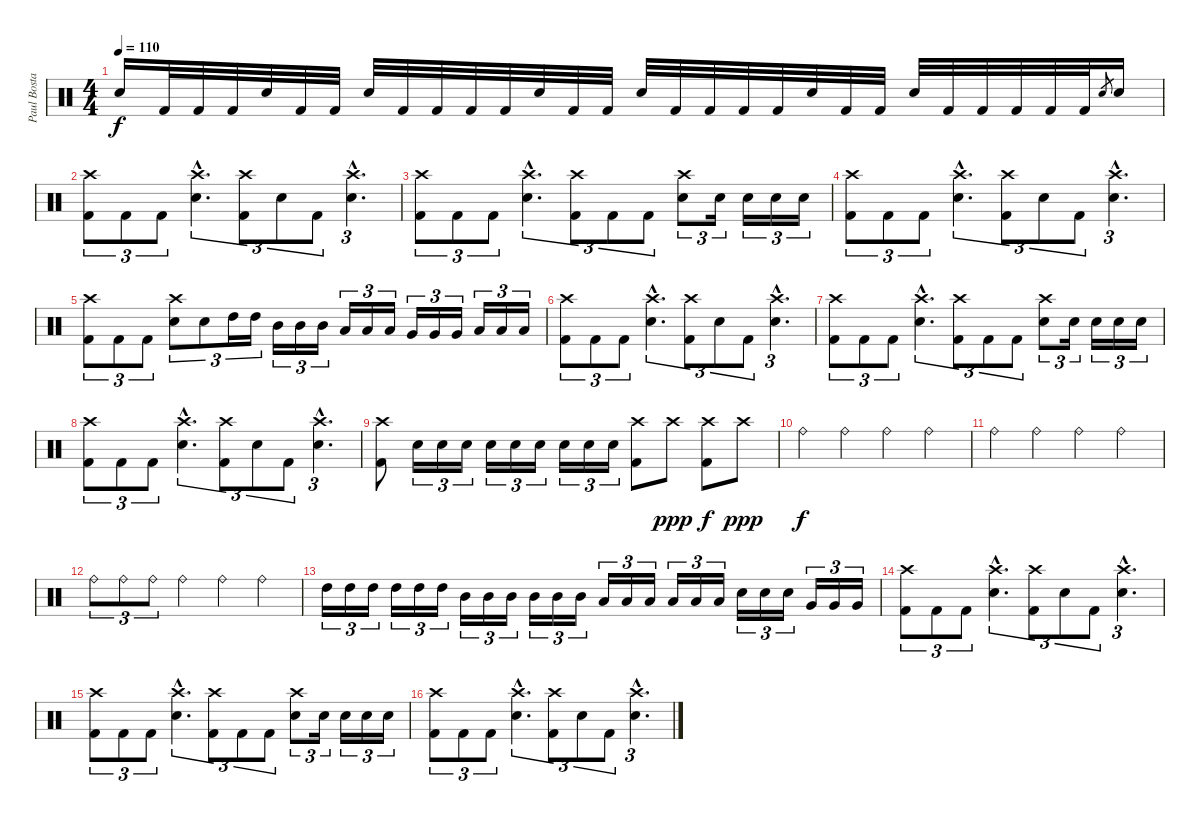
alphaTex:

\track ("Paul Bostaph" "Paul Bosta") {instrument percussion}
\staff {score}
\articulation defaults
\ts (4 4)
\tempo 110
\clef neutral
\ks c "Electric Snare (hit)".16{dy f} "Kick (hit) 2".32 "Kick (hit) 2".32 "Kick (hit) 2".32 "Electric Snare (hit)".32 "Kick (hit) 2".32 "Kick (hit) 2".32 "Electric Snare (hit)".32 "Kick (hit) 2".32 "Kick (hit) 2".32 "Kick (hit) 2".32 "Kick (hit) 2".32 "Electric Snare (hit)".32 "Kick (hit) 2".32 "Kick (hit) 2".32 "Electric Snare (hit)".32 "Kick (hit) 2".32 "Kick (hit) 2".32 "Kick (hit) 2".32 "Kick (hit) 2".32 "Electric Snare (hit)".32 "Kick (hit) 2".32 "Kick (hit) 2".32 "Electric Snare (hit)".32 "Kick (hit) 2".32 "Kick (hit) 2".32 "Kick (hit) 2".32 "Kick (hit) 2".32 "Kick (hit) 2".32 "Electric Snare (hit)".8{gr} "Electric Snare (hit)".16
|
("Crash high (hit)" "Kick (hit) 2").8{tu (3 2)} "Kick (hit) 2".8{tu (3 2)} "Kick (hit) 2".8{tu (3 2)} ("Crash high (hit)"{hac} "Electric Snare (hit)"{hac}).4{d tu (3 2)} ("Crash high (hit)" "Kick (hit) 2").8{tu (3 2)} "Electric Snare (hit)".8{tu (3 2)} "Kick (hit) 2".8{tu (3 2)} ("Crash high (hit)"{hac} "Electric Snare (hit)"{hac}).4{d tu (3 2)} |
("Crash high (hit)" "Kick (hit) 2").8{tu (3 2)} "Kick (hit) 2".8{tu (3 2)} "Kick (hit) 2".8{tu (3 2)} ("Crash high (hit)"{hac} "Electric Snare (hit)"{hac}).4{d tu (3 2)} ("Crash high (hit)" "Kick (hit) 2").8{tu (3 2)} "Kick (hit) 2".8{tu (3 2)} "Kick (hit) 2".8{tu (3 2)} ("Crash high (hit)" "Electric Snare (hit)").8{tu (3 2)} "Electric Snare (hit)".16{tu (3 2)} "Electric Snare (hit)".16{tu (3 2)} "Electric Snare (hit)".16{tu (3 2)} "Electric Snare (hit)".16{tu (3 2)} |
("Crash high (hit)" "Kick (hit) 2").8{tu (3 2)} "Kick (hit) 2".8{tu (3 2)} "Kick (hit) 2".8{tu (3 2)} ("Crash high (hit)"{hac} "Electric Snare (hit)"{hac}).4{d tu (3 2)} ("Crash high (hit)" "Kick (hit) 2").8{tu (3 2)} "Electric Snare (hit)".8{tu (3 2)} "Kick (hit) 2".8{tu (3 2)} ("Crash high (hit)"{hac} "Electric Snare (hit)"{hac}).4{d tu (3 2)} |
("Crash high (hit)" "Kick (hit) 2").8{tu (3 2)} "Kick (hit) 2".8{tu (3 2)} "Kick (hit) 2".8{tu (3 2)} ("Crash high (hit)" "Electric Snare (hit)").8{tu (3 2)} "Electric Snare (hit)".8{tu (3 2)} "High Tom (hit)".16{tu (3 2)} "High Tom (hit)".16{tu (3 2)} "Mid Tom (hit)".16{tu (3 2)} "Mid Tom (hit)".16{tu (3 2)} "Mid Tom (hit)".16{tu (3 2)} "Low Tom (hit)".16{tu (3 2)} "Low Tom (hit)".16{tu (3 2)} "Low Tom (hit)".16{tu (3 2)} "Very Low Tom (hit)".16{tu (3 2)} "Very Low Tom (hit)".16{tu (3 2)} "Very Low Tom (hit)".16{tu (3 2)} "Low Floor Tom (hit)".16{tu (3 2)} "Low Floor Tom (hit)".16{tu (3 2)} "Low Floor Tom (hit)".16{tu (3 2)} |
("Crash high (hit)" "Kick (hit) 2").8{tu (3 2)} "Kick (hit) 2".8{tu (3 2)} "Kick (hit) 2".8{tu (3 2)} ("Crash high (hit)"{hac} "Electric Snare (hit)"{hac}).4{d tu (3 2)} ("Crash high (hit)" "Kick (hit) 2").8{tu (3 2)} "Electric Snare (hit)".8{tu (3 2)} "Kick (hit) 2".8{tu (3 2)} ("Crash high (hit)"{hac} "Electric Snare (hit)"{hac}).4{d tu (3 2)} |
("Crash high (hit)" "Kick (hit) 2").8{tu (3 2)} "Kick (hit) 2".8{tu (3 2)} "Kick (hit) 2".8{tu (3 2)} ("Crash high (hit)"{hac} "Electric Snare (hit)"{hac}).4{d tu (3 2)} ("Crash high (hit)" "Kick (hit) 2").8{tu (3 2)} "Kick (hit) 2".8{tu (3 2)} "Kick (hit) 2".8{tu (3 2)} ("Crash high (hit)" "Electric Snare (hit)").8{tu (3 2)} "Electric Snare (hit)".16{tu (3 2)} "Electric Snare (hit)".16{tu (3 2)} "Electric Snare (hit)".16{tu (3 2)} "Electric Snare (hit)".16{tu (3 2)} |
("Crash high (hit)" "Kick (hit) 2").8{tu (3 2)} "Kick (hit) 2".8{tu (3 2)} "Kick (hit) 2".8{tu (3 2)} ("Crash high (hit)"{hac} "Electric Snare (hit)"{hac}).4{d tu (3 2)} ("Crash high (hit)" "Kick (hit) 2").8{tu (3 2)} "Electric Snare (hit)".8{tu (3 2)} "Kick (hit) 2".8{tu (3 2)} ("Crash high (hit)"{hac} "Electric Snare (hit)"{hac}).4{d tu (3 2)} |
("Crash high (hit)" "Kick (hit) 2").8 "Electric Snare (hit)".16{tu (3 2)} "Electric Snare (hit)".16{tu (3 2)} "Electric Snare (hit)".16{tu (3 2)} "Electric Snare (hit)".16{tu (3 2)} "Electric Snare (hit)".16{tu (3 2)} "Electric Snare (hit)".16{tu (3 2)} "Electric Snare (hit)".16{tu (3 2)} "Electric Snare (hit)".16{tu (3 2)} "Electric Snare (hit)".16{tu (3 2)} ("Crash high (hit)" "Kick (hit) 2").8 "Crash high (hit)".8{dy ppp} ("Crash high (hit)" "Kick (hit) 2").8{dy f} "Crash high (hit)".8{dy ppp} |
"Ride (bell)".4{dy f} "Ride (bell)".4 "Ride (bell)".4 "Ride (bell)".4 |
"Ride (bell)".4 "Ride (bell)".4 "Ride (bell)".4 "Ride (bell)".4 |
"Ride (bell)".8{tu (3 2)} "Ride (bell)".8{tu (3 2)} "Ride (bell)".8{tu (3 2)} "Ride (bell)".4 "Ride (bell)".4 "Ride (bell)".4 |
"High Tom (hit)".16{tu (3 2)} "High Tom (hit)".16{tu (3 2)} "High Tom (hit)".16{tu (3 2)} "High Tom (hit)".16{tu (3 2)} "High Tom (hit)".16{tu (3 2)} "High Tom (hit)".16{tu (3 2)} "Mid Tom (hit)".16{tu (3 2)} "Mid Tom (hit)".16{tu (3 2)} "Mid Tom (hit)".16{tu (3 2)} "Mid Tom (hit)".16{tu (3 2)} "Mid Tom (hit)".16{tu (3 2)} "Mid Tom (hit)".16{tu (3 2)} "Low Tom (hit)".16{tu (3 2)} "Low Tom (hit)".16{tu (3 2)} "Low Tom (hit)".16{tu (3 2)} "Low Tom (hit)".16{tu (3 2)} "Low Tom (hit)".16{tu (3 2)} "Low Tom (hit)".16{tu (3 2)} "Electric Snare (hit)".16{tu (3 2)} "Electric Snare (hit)".16{tu (3 2)} "Electric Snare (hit)".16{tu (3 2)} "Very Low Tom (hit)".16{tu (3 2)} "Very Low Tom (hit)".16{tu (3 2)} "Very Low Tom (hit)".16{tu (3 2)} |
("Crash high (hit)" "Kick (hit) 2").8{tu (3 2)} "Kick (hit) 2".8{tu (3 2)} "Kick (hit) 2".8{tu (3 2)} ("Crash high (hit)"{hac} "Electric Snare (hit)"{hac}).4{d tu (3 2)} ("Crash high (hit)" "Kick (hit) 2").8{tu (3 2)} "Electric Snare (hit)".8{tu (3 2)} "Kick (hit) 2".8{tu (3 2)} ("Crash high (hit)"{hac} "Electric Snare (hit)"{hac}).4{d tu (3 2)} |
("Crash high (hit)" "Kick (hit) 2").8{tu (3 2)} "Kick (hit) 2".8{tu (3 2)} "Kick (hit) 2".8{tu (3 2)} ("Crash high (hit)"{hac} "Electric Snare (hit)"{hac}).4{d tu (3 2)} ("Crash high (hit)" "Kick (hit) 2").8{tu (3 2)} "Kick (hit) 2".8{tu (3 2)} "Kick (hit) 2".8{tu (3 2)} ("Crash high (hit)" "Electric Snare (hit)").8{tu (3 2)} "Electric Snare (hit)".16{tu (3 2)} "Electric Snare (hit)".16{tu (3 2)} "Electric Snare (hit)".16{tu (3 2)} "Electric Snare (hit)".16{tu (3 2)} |
("Crash high (hit)" "Kick (hit) 2").8{tu (3 2)} "Kick (hit) 2".8{tu (3 2)} "Kick (hit) 2".8{tu (3 2)} ("Crash high (hit)"{hac} "Electric Snare (hit)"{hac}).4{d tu (3 2)} ("Crash high (hit)" "Kick (hit) 2").8{tu (3 2)} "Electric Snare (hit)".8{tu (3 2)} "Kick (hit) 2".8{tu (3 2)} ("Crash high (hit)"{hac} "Electric Snare (hit)"{hac}).4{d tu (3 2)}
